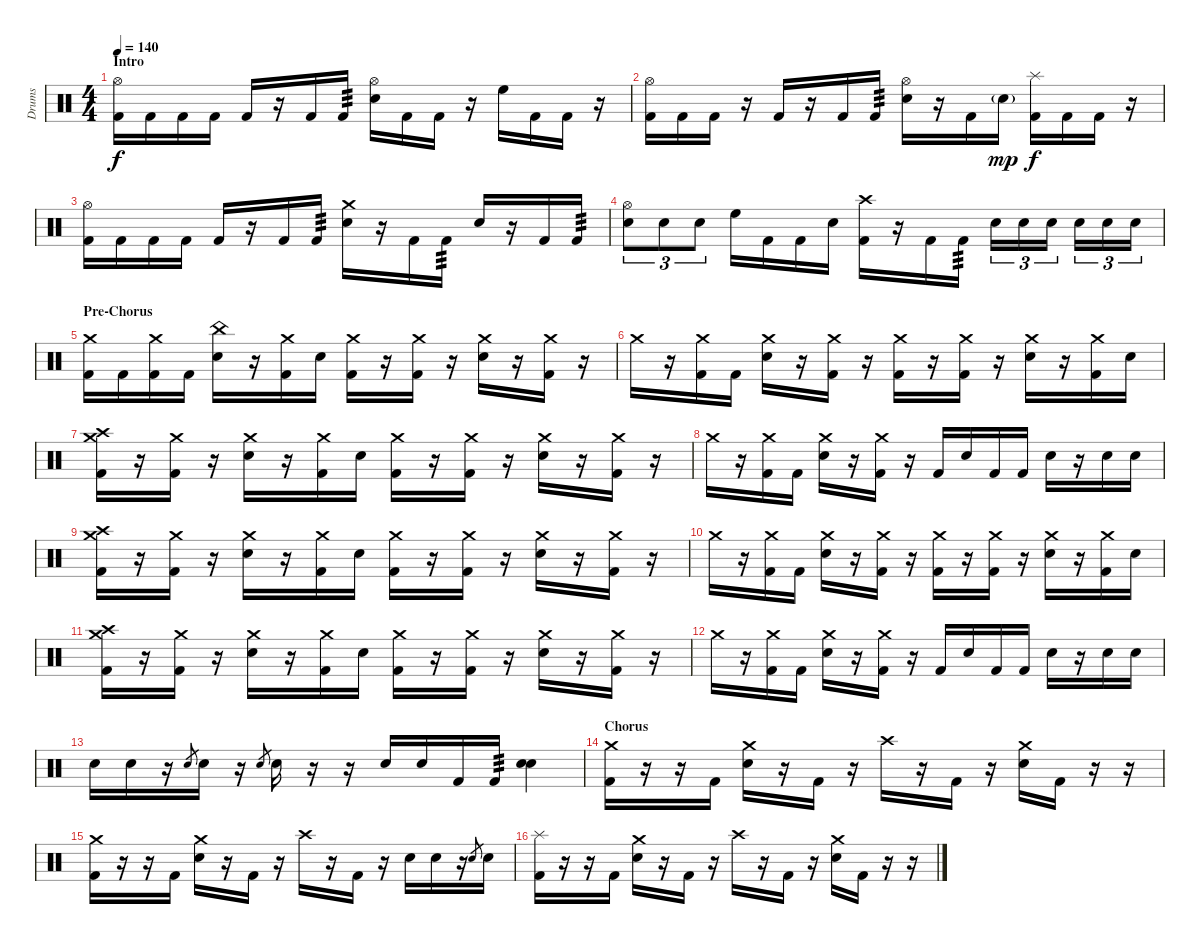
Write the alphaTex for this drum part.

\track ("Drums" "Drums") {instrument percussion}
\staff {score}
\articulation defaults
\ts (4 4)
\section ("" "Intro")
\tempo 140
\clef neutral
\ks c
("Hi-Hat (open)" "Kick (hit) 2").16{dy f} "Kick (hit) 2".16 "Kick (hit) 2".16 "Kick (hit) 2".16 "Kick (hit) 2".16 r.16 "Kick (hit) 2".16 "Kick (hit) 2".16{tp 3} ("Hi-Hat (open)" "Electric Snare (hit)").16 "Kick (hit) 2".16 "Kick (hit) 2".16 r.16 "High Floor Tom (hit)".16 "Kick (hit) 2".16 "Kick (hit) 2".16 r.16 |
("Hi-Hat (open)" "Kick (hit) 2").16 "Kick (hit) 2".16 "Kick (hit) 2".16 r.16 "Kick (hit) 2".16 r.16 "Kick (hit) 2".16 "Kick (hit) 2".16{tp 3} ("Hi-Hat (open)" "Electric Snare (hit)").16 r.16 "Kick (hit) 2".16 "Electric Snare (hit)"{g}.16{dy mp} ("Splash (hit)" "Kick (hit) 2").16{dy f} "Kick (hit) 2".16 "Kick (hit) 2".16 r.16 |
("Hi-Hat (open)" "Kick (hit) 2").16 "Kick (hit) 2".16 "Kick (hit) 2".16 "Kick (hit) 2".16 "Kick (hit) 2".16 r.16 "Kick (hit) 2".16 "Kick (hit) 2".16{tp 3} ("Crash medium (hit)" "Electric Snare (hit)").16 r.16 "Kick (hit) 2".16 "Kick (hit) 2".16{tp 3} "Electric Snare (hit)".16 r.16 "Kick (hit) 2".16 "Kick (hit) 2".16{tp 3} |
("Hi-Hat (open)" "Electric Snare (hit)").8{tu (3 2)} "Electric Snare (hit)".8{tu (3 2)} "Electric Snare (hit)".8{tu (3 2)} "High Floor Tom (hit)".16 "Kick (hit) 2".16 "Kick (hit) 2".16 "Electric Snare (hit)".16 ("Crash high (hit)" "Kick (hit) 2").16 r.16 "Kick (hit) 2".16 "Kick (hit) 2".16{tp 3} "Electric Snare (hit)".16{tu (3 2)} "Electric Snare (hit)".16{tu (3 2)} "Electric Snare (hit)".16{tu (3 2)} "Electric Snare (hit)".16{tu (3 2)} "Electric Snare (hit)".16{tu (3 2)} "Electric Snare (hit)".16{tu (3 2)} |
\section ("" "Pre-Chorus")
("Crash medium (hit)" "Kick (hit) 2").16 "Kick (hit) 2".16 ("Crash medium (hit)" "Kick (hit) 2").16 "Kick (hit) 2".16 ("China (hit)" "Electric Snare (hit)").16 r.16 ("Crash medium (hit)" "Kick (hit) 2").16 "Electric Snare (hit)".16 ("Crash medium (hit)" "Kick (hit) 2").16 r.16 ("Crash medium (hit)" "Kick (hit) 2").16 r.16 ("Crash medium (hit)" "Electric Snare (hit)").16 r.16 ("Crash medium (hit)" "Kick (hit) 2").16 r.16 |
"Crash medium (hit)".16 r.16 ("Crash medium (hit)" "Kick (hit) 2").16 "Kick (hit) 2".16 ("Crash medium (hit)" "Electric Snare (hit)").16 r.16 ("Crash medium (hit)" "Kick (hit) 2").16 r.16 ("Crash medium (hit)" "Kick (hit) 2").16 r.16 ("Crash medium (hit)" "Kick (hit) 2").16 r.16 ("Crash medium (hit)" "Electric Snare (hit)").16 r.16 ("Crash medium (hit)" "Kick (hit) 2").16 "Electric Snare (hit)".16 |
("Crash medium (hit)" "Crash high (hit)" "Kick (hit) 2").16 r.16 ("Crash medium (hit)" "Kick (hit) 2").16 r.16 ("Crash medium (hit)" "Electric Snare (hit)").16 r.16 ("Crash medium (hit)" "Kick (hit) 2").16 "Electric Snare (hit)".16 ("Crash medium (hit)" "Kick (hit) 2").16 r.16 ("Crash medium (hit)" "Kick (hit) 2").16 r.16 ("Crash medium (hit)" "Electric Snare (hit)").16 r.16 ("Crash medium (hit)" "Kick (hit) 2").16 r.16 |
"Crash medium (hit)".16 r.16 ("Crash medium (hit)" "Kick (hit) 2").16 "Kick (hit) 2".16 ("Crash medium (hit)" "Electric Snare (hit)").16 r.16 ("Crash medium (hit)" "Kick (hit) 2").16 r.16 "Kick (hit) 2".16 "Electric Snare (hit)".16 "Kick (hit) 2".16 "Kick (hit) 2".16 "Electric Snare (hit)".16 r.16 "Electric Snare (hit)".16 "Electric Snare (hit)".16 |
("Crash medium (hit)" "Crash high (hit)" "Kick (hit) 2").16 r.16 ("Crash medium (hit)" "Kick (hit) 2").16 r.16 ("Crash medium (hit)" "Electric Snare (hit)").16 r.16 ("Crash medium (hit)" "Kick (hit) 2").16 "Electric Snare (hit)".16 ("Crash medium (hit)" "Kick (hit) 2").16 r.16 ("Crash medium (hit)" "Kick (hit) 2").16 r.16 ("Crash medium (hit)" "Electric Snare (hit)").16 r.16 ("Crash medium (hit)" "Kick (hit) 2").16 r.16 |
"Crash medium (hit)".16 r.16 ("Crash medium (hit)" "Kick (hit) 2").16 "Kick (hit) 2".16 ("Crash medium (hit)" "Electric Snare (hit)").16 r.16 ("Crash medium (hit)" "Kick (hit) 2").16 r.16 ("Crash medium (hit)" "Kick (hit) 2").16 r.16 ("Crash medium (hit)" "Kick (hit) 2").16 r.16 ("Crash medium (hit)" "Electric Snare (hit)").16 r.16 ("Crash medium (hit)" "Kick (hit) 2").16 "Electric Snare (hit)".16 |
("Crash medium (hit)" "Crash high (hit)" "Kick (hit) 2").16 r.16 ("Crash medium (hit)" "Kick (hit) 2").16 r.16 ("Crash medium (hit)" "Electric Snare (hit)").16 r.16 ("Crash medium (hit)" "Kick (hit) 2").16 "Electric Snare (hit)".16 ("Crash medium (hit)" "Kick (hit) 2").16 r.16 ("Crash medium (hit)" "Kick (hit) 2").16 r.16 ("Crash medium (hit)" "Electric Snare (hit)").16 r.16 ("Crash medium (hit)" "Kick (hit) 2").16 r.16 |
"Crash medium (hit)".16 r.16 ("Crash medium (hit)" "Kick (hit) 2").16 "Kick (hit) 2".16 ("Crash medium (hit)" "Electric Snare (hit)").16 r.16 ("Crash medium (hit)" "Kick (hit) 2").16 r.16 "Kick (hit) 2".16 "Electric Snare (hit)".16 "Kick (hit) 2".16 "Kick (hit) 2".16 "Electric Snare (hit)".16 r.16 "Electric Snare (hit)".16 "Electric Snare (hit)".16 |
"Electric Snare (hit)".16 "Electric Snare (hit)".16 r.16 "Electric Snare (hit)".8{gr} "Electric Snare (hit)".16 r.16 "Electric Snare (hit)".8{gr} "Electric Snare (hit)".16 r.16 r.16 "Electric Snare (hit)".16 "Electric Snare (hit)".16 "Kick (hit) 2".16 "Kick (hit) 2".16{tp 3} ("Electric Snare (hit)" "Electric Snare (hit)").4 |
\section ("" "Chorus")
("Crash medium (hit)" "Kick (hit) 2").16 r.16 r.16 "Kick (hit) 2".16 ("Crash medium (hit)" "Electric Snare (hit)").16 r.16 "Kick (hit) 2".16 r.16 "Crash high (hit)".16 r.16 "Kick (hit) 2".16 r.16 ("Crash medium (hit)" "Electric Snare (hit)").16 "Kick (hit) 2".16 r.16 r.16 |
("Crash medium (hit)" "Kick (hit) 2").16 r.16 r.16 "Kick (hit) 2".16 ("Crash medium (hit)" "Electric Snare (hit)").16 r.16 "Kick (hit) 2".16 r.16 "Crash high (hit)".16 r.16 "Kick (hit) 2".16 r.16 "Electric Snare (hit)".16 "Electric Snare (hit)".16 r.16 "Electric Snare (hit)".8{gr} "Electric Snare (hit)".16 |
("Splash (hit)" "Kick (hit) 2").16 r.16 r.16 "Kick (hit) 2".16 ("Crash medium (hit)" "Electric Snare (hit)").16 r.16 "Kick (hit) 2".16 r.16 "Crash high (hit)".16 r.16 "Kick (hit) 2".16 r.16 ("Crash medium (hit)" "Electric Snare (hit)").16 "Kick (hit) 2".16 r.16 r.16
